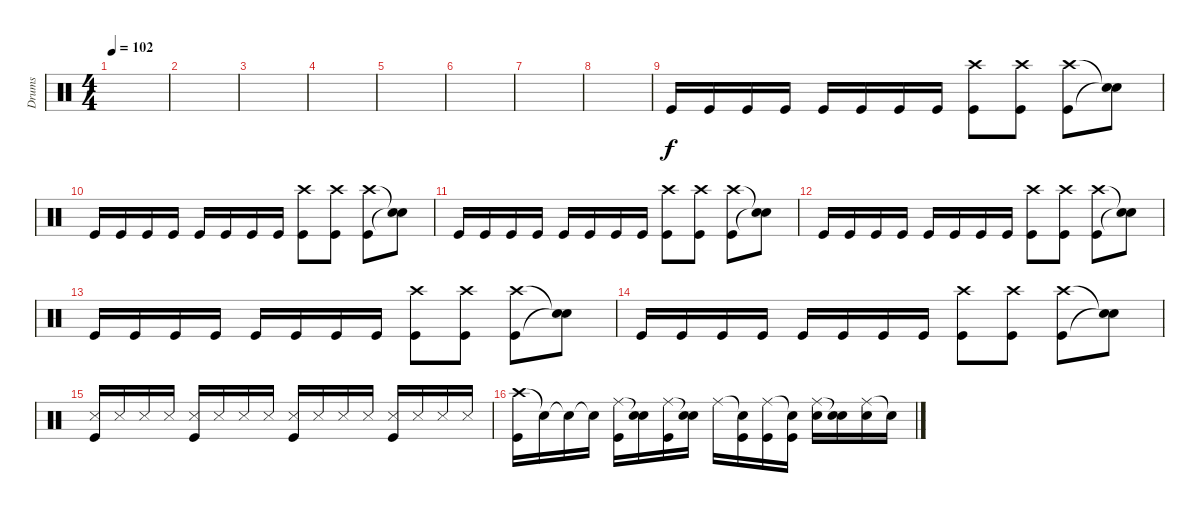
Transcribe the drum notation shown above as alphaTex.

\track ("Drums" "Drums") {instrument percussion}
\staff {score}
\articulation defaults
\ts (4 4)
\tempo 102
\clef neutral
\ks c
|
|
|
|
|
|
|
|
"Kick (hit)".16 "Kick (hit)".16 "Kick (hit)".16 "Kick (hit)".16 "Kick (hit)".16 "Kick (hit)".16 "Kick (hit)".16 "Kick (hit)".16 ("Crash high (hit)" "Kick (hit)").8 ("Crash high (hit)" "Kick (hit)").8 ("Crash high (hit)" "Kick (hit)").8 ("Snare (hit)"{t} "Snare (hit)"{t}).8 |
"Kick (hit)".16 "Kick (hit)".16 "Kick (hit)".16 "Kick (hit)".16 "Kick (hit)".16 "Kick (hit)".16 "Kick (hit)".16 "Kick (hit)".16 ("Crash high (hit)" "Kick (hit)").8 ("Crash high (hit)" "Kick (hit)").8 ("Crash high (hit)" "Kick (hit)").8 ("Snare (hit)"{t} "Snare (hit)"{t}).8 |
"Kick (hit)".16 "Kick (hit)".16 "Kick (hit)".16 "Kick (hit)".16 "Kick (hit)".16 "Kick (hit)".16 "Kick (hit)".16 "Kick (hit)".16 ("Crash high (hit)" "Kick (hit)").8 ("Crash high (hit)" "Kick (hit)").8 ("Crash high (hit)" "Kick (hit)").8 ("Snare (hit)"{t} "Snare (hit)"{t}).8 |
"Kick (hit)".16 "Kick (hit)".16 "Kick (hit)".16 "Kick (hit)".16 "Kick (hit)".16 "Kick (hit)".16 "Kick (hit)".16 "Kick (hit)".16 ("Crash high (hit)" "Kick (hit)").8 ("Crash high (hit)" "Kick (hit)").8 ("Crash high (hit)" "Kick (hit)").8 ("Snare (hit)"{t} "Snare (hit)"{t}).8 |
"Kick (hit)".16 "Kick (hit)".16 "Kick (hit)".16 "Kick (hit)".16 "Kick (hit)".16 "Kick (hit)".16 "Kick (hit)".16 "Kick (hit)".16 ("Crash high (hit)" "Kick (hit)").8 ("Crash high (hit)" "Kick (hit)").8 ("Crash high (hit)" "Kick (hit)").8 ("Snare (hit)"{t} "Snare (hit)"{t}).8 |
"Kick (hit)".16 "Kick (hit)".16 "Kick (hit)".16 "Kick (hit)".16 "Kick (hit)".16 "Kick (hit)".16 "Kick (hit)".16 "Kick (hit)".16 ("Crash high (hit)" "Kick (hit)").8 ("Crash high (hit)" "Kick (hit)").8 ("Crash high (hit)" "Kick (hit)").8 ("Snare (hit)"{t} "Snare (hit)"{t}).8 |
("Snare (side stick) 3" "Kick (hit)").16 "Snare (side stick) 3".16 "Snare (side stick) 3".16 "Snare (side stick) 3".16 ("Snare (side stick) 3" "Kick (hit)").16 "Snare (side stick) 3".16 "Snare (side stick) 3".16 "Snare (side stick) 3".16 ("Snare (side stick) 3" "Kick (hit)").16 "Snare (side stick) 3".16 "Snare (side stick) 3".16 "Snare (side stick) 3".16 ("Snare (side stick) 3" "Kick (hit)").16 "Snare (side stick) 3".16 "Snare (side stick) 3".16 "Snare (side stick) 3".16 |
("Crash high (hit)" "Kick (hit)").16 "Snare (hit)"{t}.16 "Snare (hit)"{t}.16 "Snare (hit)"{t}.16 ("Ride (middle)" "Kick (hit)").16 ("Snare (hit)"{t} "Snare (hit) 2").16 ("Ride (middle)" "Kick (hit)").16 ("Snare (hit)"{t} "Snare (hit) 2").16 "Ride (middle)".16 ("Snare (hit)"{t} "Kick (hit)").16 ("Ride (middle)" "Kick (hit)").16 ("Snare (hit)"{t} "Kick (hit)").16 ("Ride (middle)" "Snare (hit) 2").16 ("Snare (hit)"{t} "Snare (hit) 2").16 ("Ride (middle)" "Snare (hit) 2").16 "Snare (hit)"{t}.16
